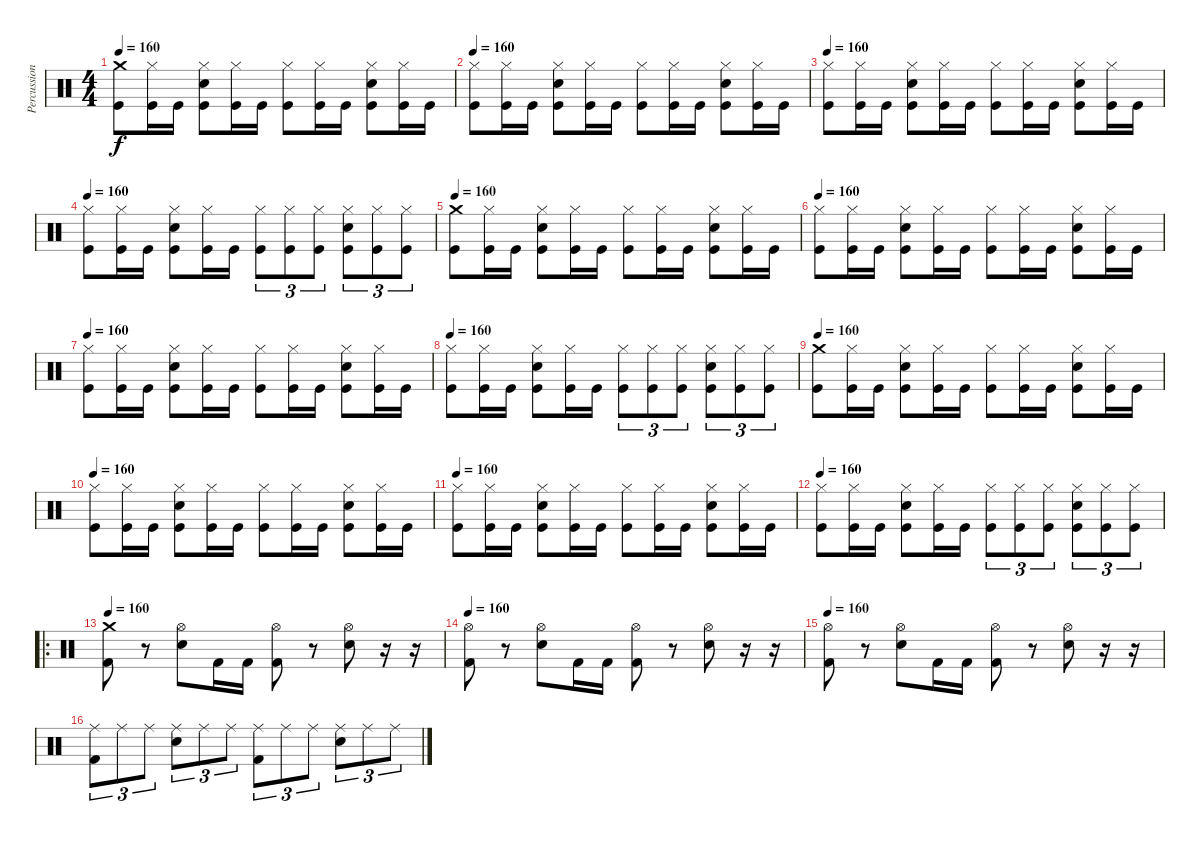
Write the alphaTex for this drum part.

\track ("Percussions" "Percussion") {instrument percussion}
\staff {score}
\articulation defaults
\ts (4 4)
\tempo 160
\clef neutral
\ks c
("Kick (hit)" "Crash medium (hit)").8{dy f} ("Kick (hit)" "Hi-Hat (closed)").16 "Kick (hit)".16 ("Kick (hit)" "Snare (hit) 2" "Hi-Hat (closed)").8 ("Kick (hit)" "Hi-Hat (closed)").16 "Kick (hit)".16 ("Kick (hit)" "Hi-Hat (closed)").8 ("Kick (hit)" "Hi-Hat (closed)").16 "Kick (hit)".16 ("Kick (hit)" "Snare (hit) 2" "Hi-Hat (closed)").8 ("Kick (hit)" "Hi-Hat (closed)").16 "Kick (hit)".16 |
\tempo 160
("Kick (hit)" "Hi-Hat (closed)").8 ("Kick (hit)" "Hi-Hat (closed)").16 "Kick (hit)".16 ("Kick (hit)" "Snare (hit) 2" "Hi-Hat (closed)").8 ("Kick (hit)" "Hi-Hat (closed)").16 "Kick (hit)".16 ("Kick (hit)" "Hi-Hat (closed)").8 ("Kick (hit)" "Hi-Hat (closed)").16 "Kick (hit)".16 ("Kick (hit)" "Snare (hit) 2" "Hi-Hat (closed)").8 ("Kick (hit)" "Hi-Hat (closed)").16 "Kick (hit)".16 |
\tempo 160
("Kick (hit)" "Hi-Hat (closed)").8 ("Kick (hit)" "Hi-Hat (closed)").16 "Kick (hit)".16 ("Kick (hit)" "Snare (hit) 2" "Hi-Hat (closed)").8 ("Kick (hit)" "Hi-Hat (closed)").16 "Kick (hit)".16 ("Kick (hit)" "Hi-Hat (closed)").8 ("Kick (hit)" "Hi-Hat (closed)").16 "Kick (hit)".16 ("Kick (hit)" "Snare (hit) 2" "Hi-Hat (closed)").8 ("Kick (hit)" "Hi-Hat (closed)").16 "Kick (hit)".16 |
\tempo 160
("Kick (hit)" "Hi-Hat (closed)").8 ("Kick (hit)" "Hi-Hat (closed)").16 "Kick (hit)".16 ("Kick (hit)" "Snare (hit) 2" "Hi-Hat (closed)").8 ("Kick (hit)" "Hi-Hat (closed)").16 "Kick (hit)".16 ("Kick (hit)" "Hi-Hat (closed)").8{tu (3 2)} ("Kick (hit)" "Hi-Hat (closed)").8{tu (3 2)} ("Kick (hit)" "Hi-Hat (closed)").8{tu (3 2)} ("Kick (hit)" "Snare (hit) 2" "Hi-Hat (closed)").8{tu (3 2)} ("Kick (hit)" "Hi-Hat (closed)").8{tu (3 2)} ("Kick (hit)" "Hi-Hat (closed)").8{tu (3 2)} |
\tempo 160
("Kick (hit)" "Crash medium (hit)").8 ("Kick (hit)" "Hi-Hat (closed)").16 "Kick (hit)".16 ("Kick (hit)" "Snare (hit) 2" "Hi-Hat (closed)").8 ("Kick (hit)" "Hi-Hat (closed)").16 "Kick (hit)".16 ("Kick (hit)" "Hi-Hat (closed)").8 ("Kick (hit)" "Hi-Hat (closed)").16 "Kick (hit)".16 ("Kick (hit)" "Snare (hit) 2" "Hi-Hat (closed)").8 ("Kick (hit)" "Hi-Hat (closed)").16 "Kick (hit)".16 |
\tempo 160
("Kick (hit)" "Hi-Hat (closed)").8 ("Kick (hit)" "Hi-Hat (closed)").16 "Kick (hit)".16 ("Kick (hit)" "Snare (hit) 2" "Hi-Hat (closed)").8 ("Kick (hit)" "Hi-Hat (closed)").16 "Kick (hit)".16 ("Kick (hit)" "Hi-Hat (closed)").8 ("Kick (hit)" "Hi-Hat (closed)").16 "Kick (hit)".16 ("Kick (hit)" "Snare (hit) 2" "Hi-Hat (closed)").8 ("Kick (hit)" "Hi-Hat (closed)").16 "Kick (hit)".16 |
\tempo 160
("Kick (hit)" "Hi-Hat (closed)").8 ("Kick (hit)" "Hi-Hat (closed)").16 "Kick (hit)".16 ("Kick (hit)" "Snare (hit) 2" "Hi-Hat (closed)").8 ("Kick (hit)" "Hi-Hat (closed)").16 "Kick (hit)".16 ("Kick (hit)" "Hi-Hat (closed)").8 ("Kick (hit)" "Hi-Hat (closed)").16 "Kick (hit)".16 ("Kick (hit)" "Snare (hit) 2" "Hi-Hat (closed)").8 ("Kick (hit)" "Hi-Hat (closed)").16 "Kick (hit)".16 |
\tempo 160
("Kick (hit)" "Hi-Hat (closed)").8 ("Kick (hit)" "Hi-Hat (closed)").16 "Kick (hit)".16 ("Kick (hit)" "Snare (hit) 2" "Hi-Hat (closed)").8 ("Kick (hit)" "Hi-Hat (closed)").16 "Kick (hit)".16 ("Kick (hit)" "Hi-Hat (closed)").8{tu (3 2)} ("Kick (hit)" "Hi-Hat (closed)").8{tu (3 2)} ("Kick (hit)" "Hi-Hat (closed)").8{tu (3 2)} ("Kick (hit)" "Snare (hit) 2" "Hi-Hat (closed)").8{tu (3 2)} ("Kick (hit)" "Hi-Hat (closed)").8{tu (3 2)} ("Kick (hit)" "Hi-Hat (closed)").8{tu (3 2)} |
\tempo 160
("Kick (hit)" "Crash medium (hit)").8 ("Kick (hit)" "Hi-Hat (closed)").16 "Kick (hit)".16 ("Kick (hit)" "Snare (hit) 2" "Hi-Hat (closed)").8 ("Kick (hit)" "Hi-Hat (closed)").16 "Kick (hit)".16 ("Kick (hit)" "Hi-Hat (closed)").8 ("Kick (hit)" "Hi-Hat (closed)").16 "Kick (hit)".16 ("Kick (hit)" "Snare (hit) 2" "Hi-Hat (closed)").8 ("Kick (hit)" "Hi-Hat (closed)").16 "Kick (hit)".16 |
\tempo 160
("Kick (hit)" "Hi-Hat (closed)").8 ("Kick (hit)" "Hi-Hat (closed)").16 "Kick (hit)".16 ("Kick (hit)" "Snare (hit) 2" "Hi-Hat (closed)").8 ("Kick (hit)" "Hi-Hat (closed)").16 "Kick (hit)".16 ("Kick (hit)" "Hi-Hat (closed)").8 ("Kick (hit)" "Hi-Hat (closed)").16 "Kick (hit)".16 ("Kick (hit)" "Snare (hit) 2" "Hi-Hat (closed)").8 ("Kick (hit)" "Hi-Hat (closed)").16 "Kick (hit)".16 |
\tempo 160
("Kick (hit)" "Hi-Hat (closed)").8 ("Kick (hit)" "Hi-Hat (closed)").16 "Kick (hit)".16 ("Kick (hit)" "Snare (hit) 2" "Hi-Hat (closed)").8 ("Kick (hit)" "Hi-Hat (closed)").16 "Kick (hit)".16 ("Kick (hit)" "Hi-Hat (closed)").8 ("Kick (hit)" "Hi-Hat (closed)").16 "Kick (hit)".16 ("Kick (hit)" "Snare (hit) 2" "Hi-Hat (closed)").8 ("Kick (hit)" "Hi-Hat (closed)").16 "Kick (hit)".16 |
\tempo 160
("Kick (hit)" "Hi-Hat (closed)").8 ("Kick (hit)" "Hi-Hat (closed)").16 "Kick (hit)".16 ("Kick (hit)" "Snare (hit) 2" "Hi-Hat (closed)").8 ("Kick (hit)" "Hi-Hat (closed)").16 "Kick (hit)".16 ("Kick (hit)" "Hi-Hat (closed)").8{tu (3 2)} ("Kick (hit)" "Hi-Hat (closed)").8{tu (3 2)} ("Kick (hit)" "Hi-Hat (closed)").8{tu (3 2)} ("Kick (hit)" "Snare (hit) 2" "Hi-Hat (closed)").8{tu (3 2)} ("Kick (hit)" "Hi-Hat (closed)").8{tu (3 2)} ("Kick (hit)" "Hi-Hat (closed)").8{tu (3 2)} |
\ro
\tempo 160
("Kick (hit) 2" "Crash medium (hit)").8 r.8 ("Electric Snare (hit)" "Hi-Hat (open)").8 "Kick (hit) 2".16 "Kick (hit) 2".16 ("Kick (hit) 2" "Hi-Hat (open)").8 r.8 ("Electric Snare (hit)" "Hi-Hat (open)").8 r.16 r.16 |
\tempo 160
("Kick (hit) 2" "Hi-Hat (open)").8 r.8 ("Electric Snare (hit)" "Hi-Hat (open)").8 "Kick (hit) 2".16 "Kick (hit) 2".16 ("Kick (hit) 2" "Hi-Hat (open)").8 r.8 ("Electric Snare (hit)" "Hi-Hat (open)").8 r.16 r.16 |
\tempo 160
("Kick (hit) 2" "Hi-Hat (open)").8 r.8 ("Electric Snare (hit)" "Hi-Hat (open)").8 "Kick (hit) 2".16 "Kick (hit) 2".16 ("Kick (hit) 2" "Hi-Hat (open)").8 r.8 ("Electric Snare (hit)" "Hi-Hat (open)").8 r.16 r.16 |
("Kick (hit) 2" "Ride (middle)").8{tu (3 2)} "Ride (middle)".8{tu (3 2)} "Ride (middle)".8{tu (3 2)} ("Electric Snare (hit)" "Ride (middle)").8{tu (3 2)} "Ride (middle)".8{tu (3 2)} "Ride (middle)".8{tu (3 2)} ("Kick (hit) 2" "Ride (middle)").8{tu (3 2)} "Ride (middle)".8{tu (3 2)} "Ride (middle)".8{tu (3 2)} ("Electric Snare (hit)" "Ride (middle)").8{tu (3 2)} "Ride (middle)".8{tu (3 2)} "Ride (middle)".8{tu (3 2)}
